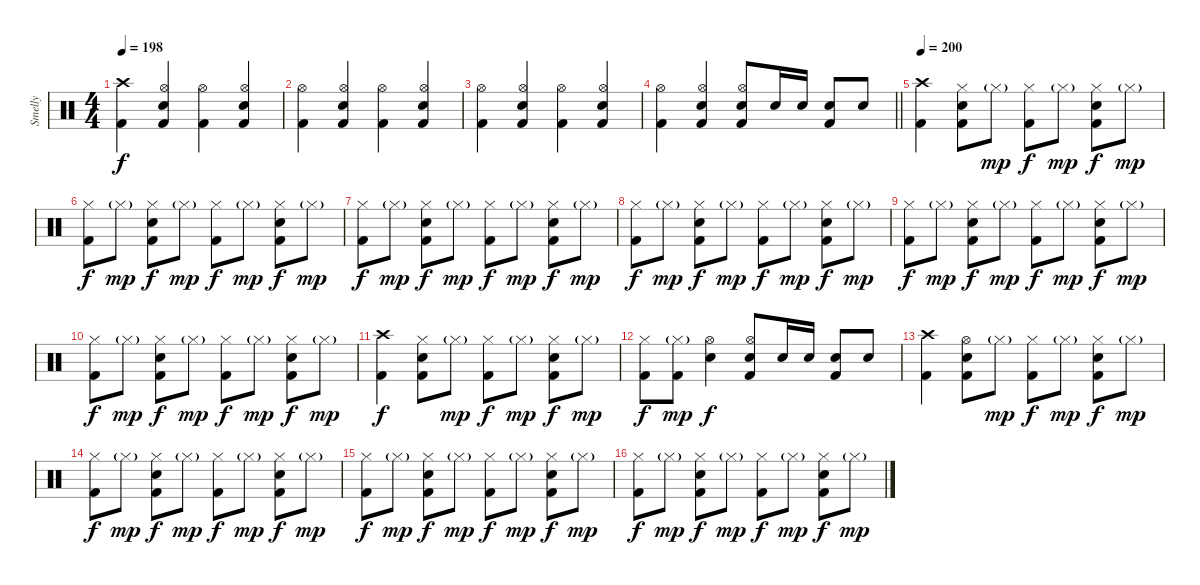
\track ("Smelly" "Smelly") {instrument percussion}
\staff {score}
\articulation defaults
\ts (4 4)
\tempo 198
\clef neutral
\ks c
("Crash high (hit)" "Kick (hit) 2").4{dy f} ("Hi-Hat (open)" "Electric Snare (hit)" "Kick (hit) 2").4 ("Hi-Hat (open)" "Kick (hit) 2").4 ("Hi-Hat (open)" "Electric Snare (hit)" "Kick (hit) 2").4 |
("Hi-Hat (open)" "Kick (hit) 2").4 ("Hi-Hat (open)" "Electric Snare (hit)" "Kick (hit) 2").4 ("Hi-Hat (open)" "Kick (hit) 2").4 ("Hi-Hat (open)" "Electric Snare (hit)" "Kick (hit) 2").4 |
("Hi-Hat (open)" "Kick (hit) 2").4 ("Hi-Hat (open)" "Electric Snare (hit)" "Kick (hit) 2").4 ("Hi-Hat (open)" "Kick (hit) 2").4 ("Hi-Hat (open)" "Electric Snare (hit)" "Kick (hit) 2").4 |
\barLineRight lightlight
("Hi-Hat (open)" "Kick (hit) 2").4 ("Hi-Hat (open)" "Electric Snare (hit)" "Kick (hit) 2").4 ("Hi-Hat (open)" "Electric Snare (hit)" "Kick (hit) 2").8 "Electric Snare (hit)".16 "Electric Snare (hit)".16 ("Electric Snare (hit)" "Kick (hit) 2").8 "Electric Snare (hit)".8 |
\section ("" "")
\tempo 200
("Crash high (hit)" "Kick (hit) 2").4 ("Hi-Hat (closed)" "Electric Snare (hit)" "Kick (hit) 2").8 "Hi-Hat (closed)"{g}.8{dy mp} ("Hi-Hat (closed)" "Kick (hit) 2").8{dy f} "Hi-Hat (closed)"{g}.8{dy mp} ("Hi-Hat (closed)" "Electric Snare (hit)" "Kick (hit) 2").8{dy f} "Hi-Hat (closed)"{g}.8{dy mp} |
("Hi-Hat (closed)" "Kick (hit) 2").8{dy f} "Hi-Hat (closed)"{g}.8{dy mp} ("Hi-Hat (closed)" "Electric Snare (hit)" "Kick (hit) 2").8{dy f} "Hi-Hat (closed)"{g}.8{dy mp} ("Hi-Hat (closed)" "Kick (hit) 2").8{dy f} "Hi-Hat (closed)"{g}.8{dy mp} ("Hi-Hat (closed)" "Electric Snare (hit)" "Kick (hit) 2").8{dy f} "Hi-Hat (closed)"{g}.8{dy mp} |
("Hi-Hat (closed)" "Kick (hit) 2").8{dy f} "Hi-Hat (closed)"{g}.8{dy mp} ("Hi-Hat (closed)" "Electric Snare (hit)" "Kick (hit) 2").8{dy f} "Hi-Hat (closed)"{g}.8{dy mp} ("Hi-Hat (closed)" "Kick (hit) 2").8{dy f} "Hi-Hat (closed)"{g}.8{dy mp} ("Hi-Hat (closed)" "Electric Snare (hit)" "Kick (hit) 2").8{dy f} "Hi-Hat (closed)"{g}.8{dy mp} |
("Hi-Hat (closed)" "Kick (hit) 2").8{dy f} "Hi-Hat (closed)"{g}.8{dy mp} ("Hi-Hat (closed)" "Electric Snare (hit)" "Kick (hit) 2").8{dy f} "Hi-Hat (closed)"{g}.8{dy mp} ("Hi-Hat (closed)" "Kick (hit) 2").8{dy f} "Hi-Hat (closed)"{g}.8{dy mp} ("Hi-Hat (closed)" "Electric Snare (hit)" "Kick (hit) 2").8{dy f} "Hi-Hat (closed)"{g}.8{dy mp} |
("Hi-Hat (closed)" "Kick (hit) 2").8{dy f} "Hi-Hat (closed)"{g}.8{dy mp} ("Hi-Hat (closed)" "Electric Snare (hit)" "Kick (hit) 2").8{dy f} "Hi-Hat (closed)"{g}.8{dy mp} ("Hi-Hat (closed)" "Kick (hit) 2").8{dy f} "Hi-Hat (closed)"{g}.8{dy mp} ("Hi-Hat (closed)" "Electric Snare (hit)" "Kick (hit) 2").8{dy f} "Hi-Hat (closed)"{g}.8{dy mp} |
("Hi-Hat (closed)" "Kick (hit) 2").8{dy f} "Hi-Hat (closed)"{g}.8{dy mp} ("Hi-Hat (closed)" "Electric Snare (hit)" "Kick (hit) 2").8{dy f} "Hi-Hat (closed)"{g}.8{dy mp} ("Hi-Hat (closed)" "Kick (hit) 2").8{dy f} "Hi-Hat (closed)"{g}.8{dy mp} ("Hi-Hat (closed)" "Electric Snare (hit)" "Kick (hit) 2").8{dy f} "Hi-Hat (closed)"{g}.8{dy mp} |
("Crash high (hit)" "Kick (hit) 2").4{dy f} ("Hi-Hat (closed)" "Electric Snare (hit)" "Kick (hit) 2").8 "Hi-Hat (closed)"{g}.8{dy mp} ("Hi-Hat (closed)" "Kick (hit) 2").8{dy f} "Hi-Hat (closed)"{g}.8{dy mp} ("Hi-Hat (closed)" "Electric Snare (hit)" "Kick (hit) 2").8{dy f} "Hi-Hat (closed)"{g}.8{dy mp} |
("Hi-Hat (closed)" "Kick (hit) 2").8{dy f} ("Hi-Hat (closed)"{g} "Kick (hit) 2").8{dy mp} ("Hi-Hat (open)" "Electric Snare (hit)").4{dy f} ("Hi-Hat (open)" "Electric Snare (hit)" "Kick (hit) 2").8 "Electric Snare (hit)".16 "Electric Snare (hit)".16 ("Electric Snare (hit)" "Kick (hit) 2").8 "Electric Snare (hit)".8 |
("Crash high (hit)" "Kick (hit) 2").4 ("Hi-Hat (open)" "Electric Snare (hit)" "Kick (hit) 2").8 "Hi-Hat (closed)"{g}.8{dy mp} ("Hi-Hat (closed)" "Kick (hit) 2").8{dy f} "Hi-Hat (closed)"{g}.8{dy mp} ("Hi-Hat (closed)" "Electric Snare (hit)" "Kick (hit) 2").8{dy f} "Hi-Hat (closed)"{g}.8{dy mp} |
("Hi-Hat (closed)" "Kick (hit) 2").8{dy f} "Hi-Hat (closed)"{g}.8{dy mp} ("Hi-Hat (closed)" "Electric Snare (hit)" "Kick (hit) 2").8{dy f} "Hi-Hat (closed)"{g}.8{dy mp} ("Hi-Hat (closed)" "Kick (hit) 2").8{dy f} "Hi-Hat (closed)"{g}.8{dy mp} ("Hi-Hat (closed)" "Electric Snare (hit)" "Kick (hit) 2").8{dy f} "Hi-Hat (closed)"{g}.8{dy mp} |
("Hi-Hat (closed)" "Kick (hit) 2").8{dy f} "Hi-Hat (closed)"{g}.8{dy mp} ("Hi-Hat (closed)" "Electric Snare (hit)" "Kick (hit) 2").8{dy f} "Hi-Hat (closed)"{g}.8{dy mp} ("Hi-Hat (closed)" "Kick (hit) 2").8{dy f} "Hi-Hat (closed)"{g}.8{dy mp} ("Hi-Hat (closed)" "Electric Snare (hit)" "Kick (hit) 2").8{dy f} "Hi-Hat (closed)"{g}.8{dy mp} |
("Hi-Hat (closed)" "Kick (hit) 2").8{dy f} "Hi-Hat (closed)"{g}.8{dy mp} ("Hi-Hat (closed)" "Electric Snare (hit)" "Kick (hit) 2").8{dy f} "Hi-Hat (closed)"{g}.8{dy mp} ("Hi-Hat (closed)" "Kick (hit) 2").8{dy f} "Hi-Hat (closed)"{g}.8{dy mp} ("Hi-Hat (closed)" "Electric Snare (hit)" "Kick (hit) 2").8{dy f} "Hi-Hat (closed)"{g}.8{dy mp}
